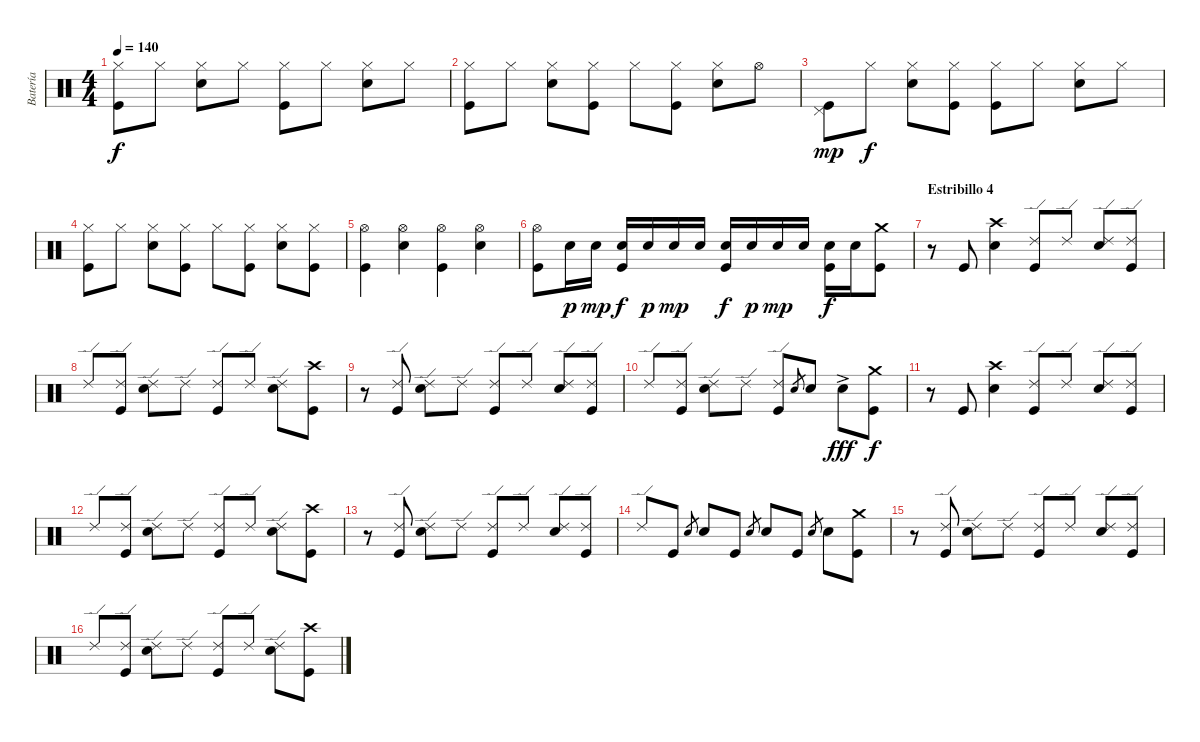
\track ("Batería" "Batería") {instrument percussion}
\staff {score}
\articulation defaults
\ts (4 4)
\tempo 140
\clef neutral
\ks c
("Kick (hit)" "Hi-Hat (closed)").8{dy f} "Hi-Hat (closed)".8 ("Electric Snare (hit)" "Hi-Hat (closed)").8 "Hi-Hat (closed)".8 ("Kick (hit)" "Hi-Hat (closed)").8 "Hi-Hat (closed)".8 ("Electric Snare (hit)" "Hi-Hat (closed)").8 "Hi-Hat (closed)".8 |
("Kick (hit)" "Hi-Hat (closed)").8 "Hi-Hat (closed)".8 ("Electric Snare (hit)" "Hi-Hat (closed)").8 ("Kick (hit)" "Hi-Hat (closed)").8 "Hi-Hat (closed)".8 ("Kick (hit)" "Hi-Hat (closed)").8 ("Electric Snare (hit)" "Hi-Hat (closed)").8 "Hi-Hat (open)".8 |
("Kick (hit)" "Pedal Hi-Hat (hit)").8{dy mp} "Hi-Hat (closed)".8{dy f} ("Electric Snare (hit)" "Hi-Hat (closed)").8 ("Kick (hit)" "Hi-Hat (closed)").8 ("Kick (hit)" "Hi-Hat (closed)").8 "Hi-Hat (closed)".8 ("Electric Snare (hit)" "Hi-Hat (closed)").8 "Hi-Hat (closed)".8 |
("Kick (hit)" "Hi-Hat (closed)").8 "Hi-Hat (closed)".8 ("Electric Snare (hit)" "Hi-Hat (closed)").8 ("Kick (hit)" "Hi-Hat (closed)").8 "Hi-Hat (closed)".8 ("Kick (hit)" "Hi-Hat (closed)").8 ("Electric Snare (hit)" "Hi-Hat (closed)").8 ("Kick (hit)" "Hi-Hat (closed)").8 |
("Kick (hit)" "Hi-Hat (open)").4 ("Electric Snare (hit)" "Hi-Hat (open)").4 ("Kick (hit)" "Hi-Hat (open)").4 ("Electric Snare (hit)" "Hi-Hat (open)").4 |
("Kick (hit)" "Hi-Hat (open)").8 "Electric Snare (hit)".16{dy p} "Electric Snare (hit)".16{dy mp} ("Kick (hit)" "Electric Snare (hit)").16{dy f} "Electric Snare (hit)".16{dy p} "Electric Snare (hit)".16{dy mp} "Electric Snare (hit)".16 ("Kick (hit)" "Electric Snare (hit)").16{dy f} "Electric Snare (hit)".16{dy p} "Electric Snare (hit)".16{dy mp} "Electric Snare (hit)".16 ("Kick (hit)" "Electric Snare (hit)").16{dy f} "Electric Snare (hit)".16 ("Kick (hit)" "Crash medium (hit)").8 |
\section ("" "Estribillo 4")
r.8 "Kick (hit)".8 ("Electric Snare (hit)" "Crash high (hit)").4 ("Kick (hit)" "Ride (edge) 2").8 "Ride (edge) 2".8 ("Electric Snare (hit)" "Ride (edge) 2").8 ("Kick (hit)" "Ride (edge) 2").8 |
"Ride (edge) 2".8 ("Kick (hit)" "Ride (edge) 2").8 ("Electric Snare (hit)" "Ride (edge) 2").8 "Ride (edge) 2".8 ("Kick (hit)" "Ride (edge) 2").8 "Ride (edge) 2".8 ("Electric Snare (hit)" "Ride (edge) 2").8 ("Kick (hit)" "Crash high (hit)").8 |
r.8 ("Kick (hit)" "Ride (edge) 2").8 ("Electric Snare (hit)" "Ride (edge) 2").8 "Ride (edge) 2".8 ("Kick (hit)" "Ride (edge) 2").8 "Ride (edge) 2".8 ("Electric Snare (hit)" "Ride (edge) 2").8 ("Kick (hit)" "Ride (edge) 2").8 |
"Ride (edge) 2".8 ("Kick (hit)" "Ride (edge) 2").8 ("Electric Snare (hit)" "Ride (edge) 2").8 "Ride (edge) 2".8 ("Kick (hit)" "Ride (edge) 2").8 "Electric Snare (hit)".8{gr} "Electric Snare (hit)".8 "Electric Snare (hit)"{ac}.8{dy fff} ("Kick (hit)" "Crash medium (hit)").8{dy f} |
r.8 "Kick (hit)".8 ("Electric Snare (hit)" "Crash high (hit)").4 ("Kick (hit)" "Ride (edge) 2").8 "Ride (edge) 2".8 ("Electric Snare (hit)" "Ride (edge) 2").8 ("Kick (hit)" "Ride (edge) 2").8 |
"Ride (edge) 2".8 ("Kick (hit)" "Ride (edge) 2").8 ("Electric Snare (hit)" "Ride (edge) 2").8 "Ride (edge) 2".8 ("Kick (hit)" "Ride (edge) 2").8 "Ride (edge) 2".8 ("Electric Snare (hit)" "Ride (edge) 2").8 ("Kick (hit)" "Crash high (hit)").8 |
r.8 ("Kick (hit)" "Ride (edge) 2").8 ("Electric Snare (hit)" "Ride (edge) 2").8 "Ride (edge) 2".8 ("Kick (hit)" "Ride (edge) 2").8 "Ride (edge) 2".8 ("Electric Snare (hit)" "Ride (edge) 2").8 ("Kick (hit)" "Ride (edge) 2").8 |
"Ride (edge) 2".8 "Kick (hit)".8 "Electric Snare (hit)".8{gr} "Electric Snare (hit)".8 "Kick (hit)".8 "Electric Snare (hit)".8{gr} "Electric Snare (hit)".8 "Kick (hit)".8 "Electric Snare (hit)".8{gr} "Electric Snare (hit)".8 ("Kick (hit)" "Crash medium (hit)").8 |
r.8 ("Kick (hit)" "Ride (edge) 2").8 ("Electric Snare (hit)" "Ride (edge) 2").8 "Ride (edge) 2".8 ("Kick (hit)" "Ride (edge) 2").8 "Ride (edge) 2".8 ("Electric Snare (hit)" "Ride (edge) 2").8 ("Kick (hit)" "Ride (edge) 2").8 |
"Ride (edge) 2".8 ("Kick (hit)" "Ride (edge) 2").8 ("Electric Snare (hit)" "Ride (edge) 2").8 "Ride (edge) 2".8 ("Kick (hit)" "Ride (edge) 2").8 "Ride (edge) 2".8 ("Electric Snare (hit)" "Ride (edge) 2").8 ("Kick (hit)" "Crash high (hit)").8
